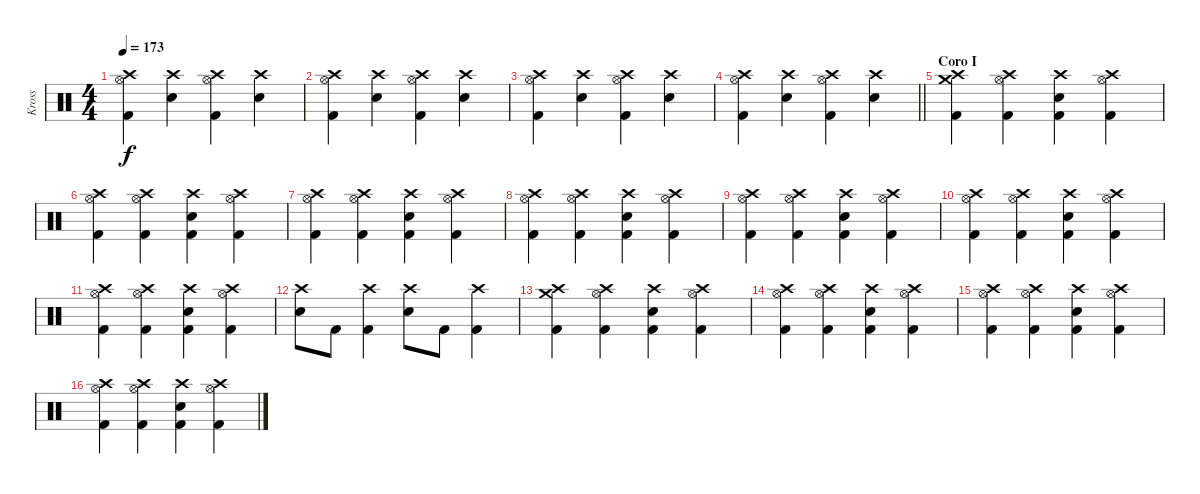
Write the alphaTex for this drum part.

\track ("Kross" "Kross") {instrument percussion}
\staff {score}
\articulation defaults
\ts (4 4)
\tempo 173
\clef neutral
\ks c
("Crash high (hit)" "Hi-Hat (open)" "Kick (hit) 2").4{dy f} ("Crash high (hit)" "Electric Snare (hit)").4 ("Crash high (hit)" "Hi-Hat (open)" "Kick (hit) 2").4 ("Crash high (hit)" "Electric Snare (hit)").4 |
("Crash high (hit)" "Hi-Hat (open)" "Kick (hit) 2").4 ("Crash high (hit)" "Electric Snare (hit)").4 ("Crash high (hit)" "Hi-Hat (open)" "Kick (hit) 2").4 ("Crash high (hit)" "Electric Snare (hit)").4 |
("Crash high (hit)" "Hi-Hat (open)" "Kick (hit) 2").4 ("Crash high (hit)" "Electric Snare (hit)").4 ("Crash high (hit)" "Hi-Hat (open)" "Kick (hit) 2").4 ("Crash high (hit)" "Electric Snare (hit)").4 |
\barLineRight lightlight
("Crash high (hit)" "Hi-Hat (open)" "Kick (hit) 2").4 ("Crash high (hit)" "Electric Snare (hit)").4 ("Crash high (hit)" "Hi-Hat (open)" "Kick (hit) 2").4 ("Crash high (hit)" "Electric Snare (hit)").4 |
\section ("" "Coro I")
("Crash medium (hit)" "Crash high (hit)" "Kick (hit) 2").4 ("Crash high (hit)" "Hi-Hat (open)" "Kick (hit) 2").4 ("Crash high (hit)" "Electric Snare (hit)" "Kick (hit) 2").4 ("Crash high (hit)" "Hi-Hat (open)" "Kick (hit) 2").4 |
("Crash high (hit)" "Hi-Hat (open)" "Kick (hit) 2").4 ("Crash high (hit)" "Hi-Hat (open)" "Kick (hit) 2").4 ("Crash high (hit)" "Electric Snare (hit)" "Kick (hit) 2").4 ("Crash high (hit)" "Hi-Hat (open)" "Kick (hit) 2").4 |
("Crash high (hit)" "Hi-Hat (open)" "Kick (hit) 2").4 ("Crash high (hit)" "Hi-Hat (open)" "Kick (hit) 2").4 ("Crash high (hit)" "Electric Snare (hit)" "Kick (hit) 2").4 ("Crash high (hit)" "Hi-Hat (open)" "Kick (hit) 2").4 |
("Crash high (hit)" "Hi-Hat (open)" "Kick (hit) 2").4 ("Crash high (hit)" "Hi-Hat (open)" "Kick (hit) 2").4 ("Crash high (hit)" "Electric Snare (hit)" "Kick (hit) 2").4 ("Crash high (hit)" "Hi-Hat (open)" "Kick (hit) 2").4 |
("Crash high (hit)" "Hi-Hat (open)" "Kick (hit) 2").4 ("Crash high (hit)" "Hi-Hat (open)" "Kick (hit) 2").4 ("Crash high (hit)" "Electric Snare (hit)" "Kick (hit) 2").4 ("Crash high (hit)" "Hi-Hat (open)" "Kick (hit) 2").4 |
("Crash high (hit)" "Hi-Hat (open)" "Kick (hit) 2").4 ("Crash high (hit)" "Hi-Hat (open)" "Kick (hit) 2").4 ("Crash high (hit)" "Electric Snare (hit)" "Kick (hit) 2").4 ("Crash high (hit)" "Hi-Hat (open)" "Kick (hit) 2").4 |
("Crash high (hit)" "Hi-Hat (open)" "Kick (hit) 2").4 ("Crash high (hit)" "Hi-Hat (open)" "Kick (hit) 2").4 ("Crash high (hit)" "Electric Snare (hit)" "Kick (hit) 2").4 ("Crash high (hit)" "Hi-Hat (open)" "Kick (hit) 2").4 |
("Crash high (hit)" "Electric Snare (hit)").8 "Kick (hit) 2".8 ("Crash high (hit)" "Kick (hit) 2").4 ("Crash high (hit)" "Electric Snare (hit)").8 "Kick (hit) 2".8 ("Crash high (hit)" "Kick (hit) 2").4 |
("Crash medium (hit)" "Crash high (hit)" "Kick (hit) 2").4 ("Crash high (hit)" "Hi-Hat (open)" "Kick (hit) 2").4 ("Crash high (hit)" "Electric Snare (hit)" "Kick (hit) 2").4 ("Crash high (hit)" "Hi-Hat (open)" "Kick (hit) 2").4 |
("Crash high (hit)" "Hi-Hat (open)" "Kick (hit) 2").4 ("Crash high (hit)" "Hi-Hat (open)" "Kick (hit) 2").4 ("Crash high (hit)" "Electric Snare (hit)" "Kick (hit) 2").4 ("Crash high (hit)" "Hi-Hat (open)" "Kick (hit) 2").4 |
("Crash high (hit)" "Hi-Hat (open)" "Kick (hit) 2").4 ("Crash high (hit)" "Hi-Hat (open)" "Kick (hit) 2").4 ("Crash high (hit)" "Electric Snare (hit)" "Kick (hit) 2").4 ("Crash high (hit)" "Hi-Hat (open)" "Kick (hit) 2").4 |
("Crash high (hit)" "Hi-Hat (open)" "Kick (hit) 2").4 ("Crash high (hit)" "Hi-Hat (open)" "Kick (hit) 2").4 ("Crash high (hit)" "Electric Snare (hit)" "Kick (hit) 2").4 ("Crash high (hit)" "Hi-Hat (open)" "Kick (hit) 2").4
